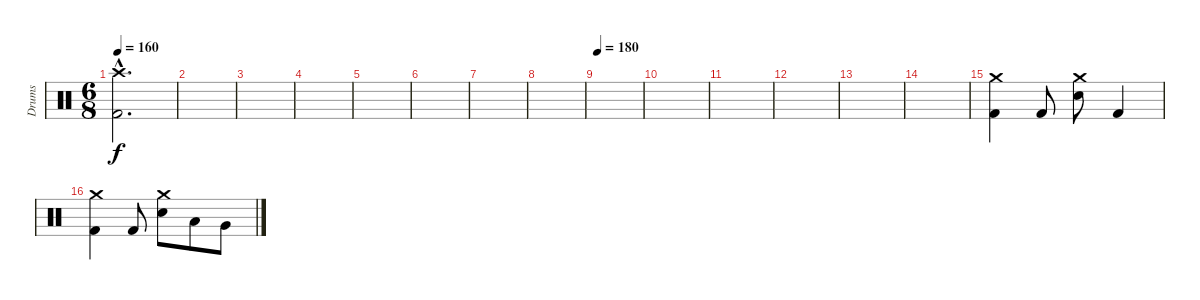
\track ("Drums" "Drums") {instrument percussion}
\staff {score}
\articulation defaults
\ts (6 8)
\tempo 160
\clef neutral
\ks c
("Crash high (hit)"{hac} "Kick (hit) 2"{hac}).2{d dy f} |
|
|
|
|
|
|
|
\tempo 180
|
|
|
|
|
|
("Crash medium (hit)" "Kick (hit) 2").4 "Kick (hit) 2".8 ("Crash medium (hit)" "Electric Snare (hit)").8 "Kick (hit) 2".4 |
("Crash medium (hit)" "Kick (hit) 2").4 "Kick (hit) 2".8 ("Crash medium (hit)" "Electric Snare (hit)").8 "Low Tom (hit)".8 "Very Low Tom (hit)".8
